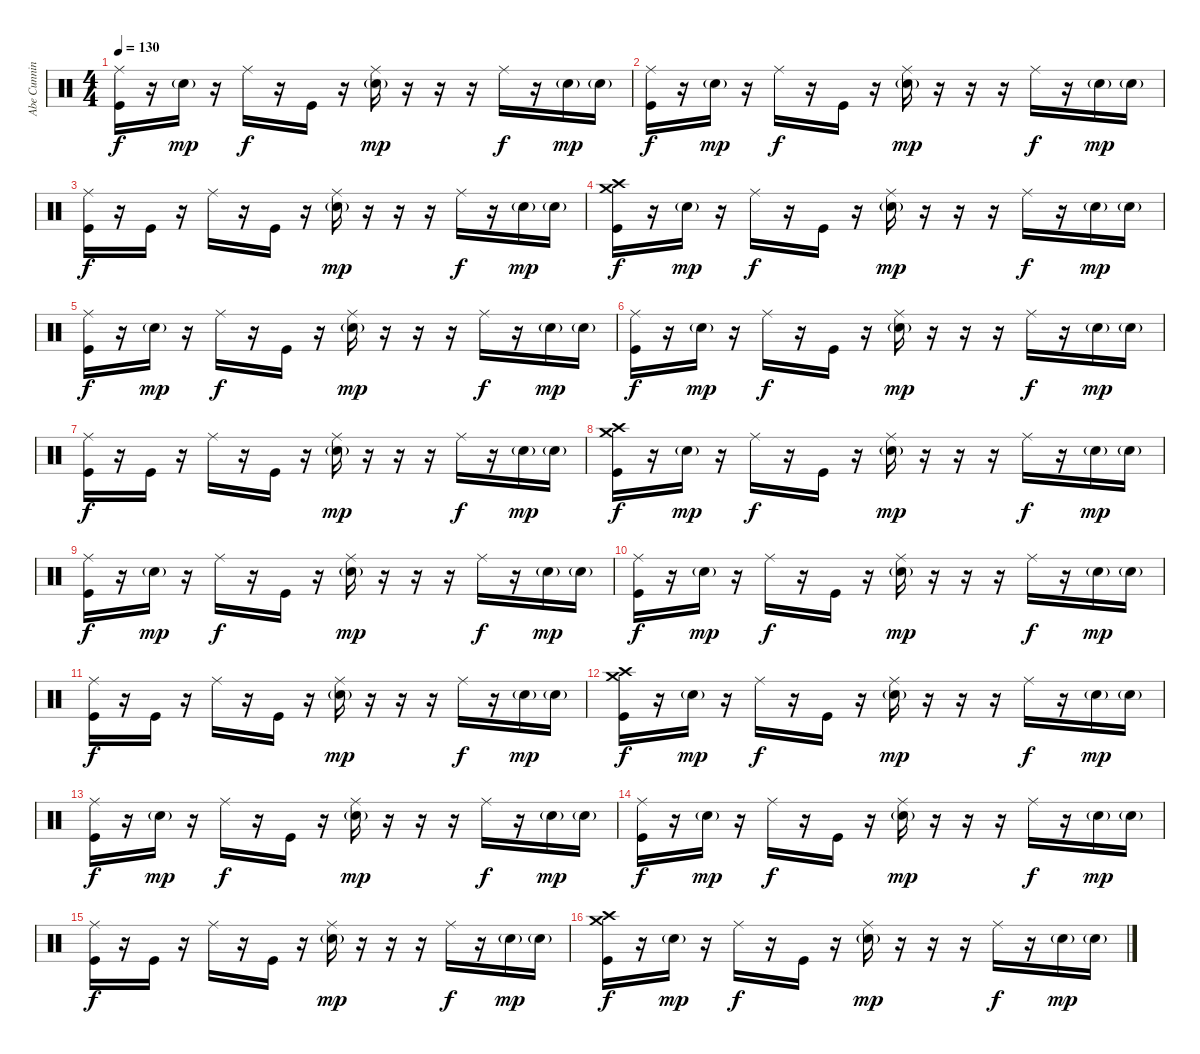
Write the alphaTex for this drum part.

\track ("Abe Cunningham" "Abe Cunnin") {instrument percussion}
\staff {score}
\articulation defaults
\ts (4 4)
\tempo 130
\clef neutral
\ks c
("Ride (middle)" "Kick (hit)").16{dy f} r.16 "Electric Snare (hit)"{g}.16{dy mp} r.16 "Ride (middle)".16{dy f} r.16 "Kick (hit)".16 r.16 ("Ride (middle)" "Electric Snare (hit)"{g}).16{dy mp} r.16 r.16 r.16 "Ride (middle)".16{dy f} r.16 "Electric Snare (hit)"{g}.16{dy mp} "Electric Snare (hit)"{g}.16 |
("Ride (middle)" "Kick (hit)").16{dy f} r.16 "Electric Snare (hit)"{g}.16{dy mp} r.16 "Ride (middle)".16{dy f} r.16 "Kick (hit)".16 r.16 ("Ride (middle)" "Electric Snare (hit)"{g}).16{dy mp} r.16 r.16 r.16 "Ride (middle)".16{dy f} r.16 "Electric Snare (hit)"{g}.16{dy mp} "Electric Snare (hit)"{g}.16 |
("Ride (middle)" "Kick (hit)").16{dy f} r.16 "Kick (hit)".16 r.16 "Ride (middle)".16 r.16 "Kick (hit)".16 r.16 ("Ride (middle)" "Electric Snare (hit)"{g}).16{dy mp} r.16 r.16 r.16 "Ride (middle)".16{dy f} r.16 "Electric Snare (hit)"{g}.16{dy mp} "Electric Snare (hit)"{g}.16 |
("Crash high (hit)" "Crash medium (hit)" "Kick (hit)").16{dy f} r.16 "Electric Snare (hit)"{g}.16{dy mp} r.16 "Ride (middle)".16{dy f} r.16 "Kick (hit)".16 r.16 ("Ride (middle)" "Electric Snare (hit)"{g}).16{dy mp} r.16 r.16 r.16 "Ride (middle)".16{dy f} r.16 "Electric Snare (hit)"{g}.16{dy mp} "Electric Snare (hit)"{g}.16 |
("Ride (middle)" "Kick (hit)").16{dy f} r.16 "Electric Snare (hit)"{g}.16{dy mp} r.16 "Ride (middle)".16{dy f} r.16 "Kick (hit)".16 r.16 ("Ride (middle)" "Electric Snare (hit)"{g}).16{dy mp} r.16 r.16 r.16 "Ride (middle)".16{dy f} r.16 "Electric Snare (hit)"{g}.16{dy mp} "Electric Snare (hit)"{g}.16 |
("Ride (middle)" "Kick (hit)").16{dy f} r.16 "Electric Snare (hit)"{g}.16{dy mp} r.16 "Ride (middle)".16{dy f} r.16 "Kick (hit)".16 r.16 ("Ride (middle)" "Electric Snare (hit)"{g}).16{dy mp} r.16 r.16 r.16 "Ride (middle)".16{dy f} r.16 "Electric Snare (hit)"{g}.16{dy mp} "Electric Snare (hit)"{g}.16 |
("Ride (middle)" "Kick (hit)").16{dy f} r.16 "Kick (hit)".16 r.16 "Ride (middle)".16 r.16 "Kick (hit)".16 r.16 ("Ride (middle)" "Electric Snare (hit)"{g}).16{dy mp} r.16 r.16 r.16 "Ride (middle)".16{dy f} r.16 "Electric Snare (hit)"{g}.16{dy mp} "Electric Snare (hit)"{g}.16 |
("Crash high (hit)" "Crash medium (hit)" "Kick (hit)").16{dy f} r.16 "Electric Snare (hit)"{g}.16{dy mp} r.16 "Ride (middle)".16{dy f} r.16 "Kick (hit)".16 r.16 ("Ride (middle)" "Electric Snare (hit)"{g}).16{dy mp} r.16 r.16 r.16 "Ride (middle)".16{dy f} r.16 "Electric Snare (hit)"{g}.16{dy mp} "Electric Snare (hit)"{g}.16 |
("Ride (middle)" "Kick (hit)").16{dy f} r.16 "Electric Snare (hit)"{g}.16{dy mp} r.16 "Ride (middle)".16{dy f} r.16 "Kick (hit)".16 r.16 ("Ride (middle)" "Electric Snare (hit)"{g}).16{dy mp} r.16 r.16 r.16 "Ride (middle)".16{dy f} r.16 "Electric Snare (hit)"{g}.16{dy mp} "Electric Snare (hit)"{g}.16 |
("Ride (middle)" "Kick (hit)").16{dy f} r.16 "Electric Snare (hit)"{g}.16{dy mp} r.16 "Ride (middle)".16{dy f} r.16 "Kick (hit)".16 r.16 ("Ride (middle)" "Electric Snare (hit)"{g}).16{dy mp} r.16 r.16 r.16 "Ride (middle)".16{dy f} r.16 "Electric Snare (hit)"{g}.16{dy mp} "Electric Snare (hit)"{g}.16 |
("Ride (middle)" "Kick (hit)").16{dy f} r.16 "Kick (hit)".16 r.16 "Ride (middle)".16 r.16 "Kick (hit)".16 r.16 ("Ride (middle)" "Electric Snare (hit)"{g}).16{dy mp} r.16 r.16 r.16 "Ride (middle)".16{dy f} r.16 "Electric Snare (hit)"{g}.16{dy mp} "Electric Snare (hit)"{g}.16 |
("Crash high (hit)" "Crash medium (hit)" "Kick (hit)").16{dy f} r.16 "Electric Snare (hit)"{g}.16{dy mp} r.16 "Ride (middle)".16{dy f} r.16 "Kick (hit)".16 r.16 ("Ride (middle)" "Electric Snare (hit)"{g}).16{dy mp} r.16 r.16 r.16 "Ride (middle)".16{dy f} r.16 "Electric Snare (hit)"{g}.16{dy mp} "Electric Snare (hit)"{g}.16 |
("Ride (middle)" "Kick (hit)").16{dy f} r.16 "Electric Snare (hit)"{g}.16{dy mp} r.16 "Ride (middle)".16{dy f} r.16 "Kick (hit)".16 r.16 ("Ride (middle)" "Electric Snare (hit)"{g}).16{dy mp} r.16 r.16 r.16 "Ride (middle)".16{dy f} r.16 "Electric Snare (hit)"{g}.16{dy mp} "Electric Snare (hit)"{g}.16 |
("Ride (middle)" "Kick (hit)").16{dy f} r.16 "Electric Snare (hit)"{g}.16{dy mp} r.16 "Ride (middle)".16{dy f} r.16 "Kick (hit)".16 r.16 ("Ride (middle)" "Electric Snare (hit)"{g}).16{dy mp} r.16 r.16 r.16 "Ride (middle)".16{dy f} r.16 "Electric Snare (hit)"{g}.16{dy mp} "Electric Snare (hit)"{g}.16 |
("Ride (middle)" "Kick (hit)").16{dy f} r.16 "Kick (hit)".16 r.16 "Ride (middle)".16 r.16 "Kick (hit)".16 r.16 ("Ride (middle)" "Electric Snare (hit)"{g}).16{dy mp} r.16 r.16 r.16 "Ride (middle)".16{dy f} r.16 "Electric Snare (hit)"{g}.16{dy mp} "Electric Snare (hit)"{g}.16 |
("Crash high (hit)" "Crash medium (hit)" "Kick (hit)").16{dy f} r.16 "Electric Snare (hit)"{g}.16{dy mp} r.16 "Ride (middle)".16{dy f} r.16 "Kick (hit)".16 r.16 ("Ride (middle)" "Electric Snare (hit)"{g}).16{dy mp} r.16 r.16 r.16 "Ride (middle)".16{dy f} r.16 "Electric Snare (hit)"{g}.16{dy mp} "Electric Snare (hit)"{g}.16
